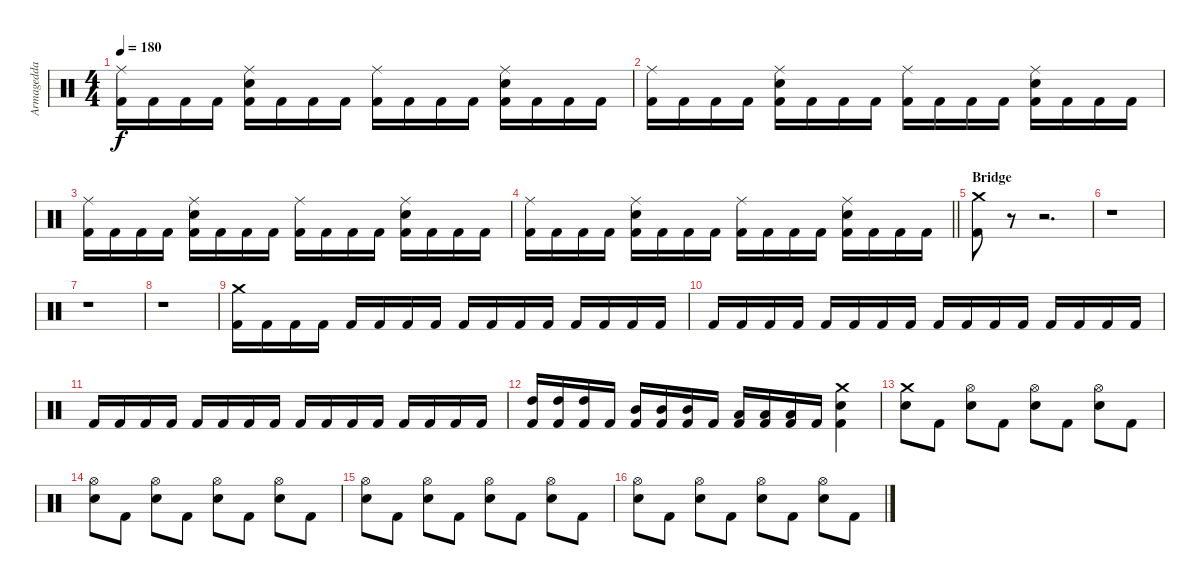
\track ("Armagedda" "Armagedda") {instrument percussion}
\staff {score}
\articulation defaults
\ts (4 4)
\tempo 180
\clef neutral
\ks c
("Ride (middle)" "Kick (hit) 2").16{dy f} "Kick (hit) 2".16 "Kick (hit) 2".16 "Kick (hit) 2".16 ("Ride (middle)" "Electric Snare (hit)" "Kick (hit) 2").16 "Kick (hit) 2".16 "Kick (hit) 2".16 "Kick (hit) 2".16 ("Ride (middle)" "Kick (hit) 2").16 "Kick (hit) 2".16 "Kick (hit) 2".16 "Kick (hit) 2".16 ("Ride (middle)" "Electric Snare (hit)" "Kick (hit) 2").16 "Kick (hit) 2".16 "Kick (hit) 2".16 "Kick (hit) 2".16 |
("Ride (middle)" "Kick (hit) 2").16 "Kick (hit) 2".16 "Kick (hit) 2".16 "Kick (hit) 2".16 ("Ride (middle)" "Electric Snare (hit)" "Kick (hit) 2").16 "Kick (hit) 2".16 "Kick (hit) 2".16 "Kick (hit) 2".16 ("Ride (middle)" "Kick (hit) 2").16 "Kick (hit) 2".16 "Kick (hit) 2".16 "Kick (hit) 2".16 ("Ride (middle)" "Electric Snare (hit)" "Kick (hit) 2").16 "Kick (hit) 2".16 "Kick (hit) 2".16 "Kick (hit) 2".16 |
("Ride (middle)" "Kick (hit) 2").16 "Kick (hit) 2".16 "Kick (hit) 2".16 "Kick (hit) 2".16 ("Ride (middle)" "Electric Snare (hit)" "Kick (hit) 2").16 "Kick (hit) 2".16 "Kick (hit) 2".16 "Kick (hit) 2".16 ("Ride (middle)" "Kick (hit) 2").16 "Kick (hit) 2".16 "Kick (hit) 2".16 "Kick (hit) 2".16 ("Ride (middle)" "Electric Snare (hit)" "Kick (hit) 2").16 "Kick (hit) 2".16 "Kick (hit) 2".16 "Kick (hit) 2".16 |
\barLineRight lightlight
("Ride (middle)" "Kick (hit) 2").16 "Kick (hit) 2".16 "Kick (hit) 2".16 "Kick (hit) 2".16 ("Ride (middle)" "Electric Snare (hit)" "Kick (hit) 2").16 "Kick (hit) 2".16 "Kick (hit) 2".16 "Kick (hit) 2".16 ("Ride (middle)" "Kick (hit) 2").16 "Kick (hit) 2".16 "Kick (hit) 2".16 "Kick (hit) 2".16 ("Ride (middle)" "Electric Snare (hit)" "Kick (hit) 2").16 "Kick (hit) 2".16 "Kick (hit) 2".16 "Kick (hit) 2".16 |
\section ("" "Bridge")
("Crash medium (hit)" "Kick (hit) 2").8 r.8 r.2{d} |
r.1 |
r.1 |
r.1 |
("Crash medium (hit)" "Kick (hit) 2").16 "Kick (hit) 2".16 "Kick (hit) 2".16 "Kick (hit) 2".16 "Kick (hit) 2".16 "Kick (hit) 2".16 "Kick (hit) 2".16 "Kick (hit) 2".16 "Kick (hit) 2".16 "Kick (hit) 2".16 "Kick (hit) 2".16 "Kick (hit) 2".16 "Kick (hit) 2".16 "Kick (hit) 2".16 "Kick (hit) 2".16 "Kick (hit) 2".16 |
"Kick (hit) 2".16 "Kick (hit) 2".16 "Kick (hit) 2".16 "Kick (hit) 2".16 "Kick (hit) 2".16 "Kick (hit) 2".16 "Kick (hit) 2".16 "Kick (hit) 2".16 "Kick (hit) 2".16 "Kick (hit) 2".16 "Kick (hit) 2".16 "Kick (hit) 2".16 "Kick (hit) 2".16 "Kick (hit) 2".16 "Kick (hit) 2".16 "Kick (hit) 2".16 |
"Kick (hit) 2".16 "Kick (hit) 2".16 "Kick (hit) 2".16 "Kick (hit) 2".16 "Kick (hit) 2".16 "Kick (hit) 2".16 "Kick (hit) 2".16 "Kick (hit) 2".16 "Kick (hit) 2".16 "Kick (hit) 2".16 "Kick (hit) 2".16 "Kick (hit) 2".16 "Kick (hit) 2".16 "Kick (hit) 2".16 "Kick (hit) 2".16 "Kick (hit) 2".16 |
("High Tom (hit)" "Kick (hit) 2").16 ("High Tom (hit)" "Kick (hit) 2").16 ("High Tom (hit)" "Kick (hit) 2").16 "Kick (hit) 2".16 ("Mid Tom (hit)" "Kick (hit) 2").16 ("Mid Tom (hit)" "Kick (hit) 2").16 ("Mid Tom (hit)" "Kick (hit) 2").16 "Kick (hit) 2".16 ("Low Tom (hit)" "Kick (hit) 2").16 ("Low Tom (hit)" "Kick (hit) 2").16 ("Low Tom (hit)" "Kick (hit) 2").16 "Kick (hit) 2".16 ("Crash medium (hit)" "Electric Snare (hit)" "Kick (hit) 2").4 |
("Crash medium (hit)" "Electric Snare (hit)").8 "Kick (hit) 2".8 ("Hi-Hat (open)" "Electric Snare (hit)").8 "Kick (hit) 2".8 ("Hi-Hat (open)" "Electric Snare (hit)").8 "Kick (hit) 2".8 ("Hi-Hat (open)" "Electric Snare (hit)").8 "Kick (hit) 2".8 |
("Hi-Hat (open)" "Electric Snare (hit)").8 "Kick (hit) 2".8 ("Hi-Hat (open)" "Electric Snare (hit)").8 "Kick (hit) 2".8 ("Hi-Hat (open)" "Electric Snare (hit)").8 "Kick (hit) 2".8 ("Hi-Hat (open)" "Electric Snare (hit)").8 "Kick (hit) 2".8 |
("Hi-Hat (open)" "Electric Snare (hit)").8 "Kick (hit) 2".8 ("Hi-Hat (open)" "Electric Snare (hit)").8 "Kick (hit) 2".8 ("Hi-Hat (open)" "Electric Snare (hit)").8 "Kick (hit) 2".8 ("Hi-Hat (open)" "Electric Snare (hit)").8 "Kick (hit) 2".8 |
("Hi-Hat (open)" "Electric Snare (hit)").8 "Kick (hit) 2".8 ("Hi-Hat (open)" "Electric Snare (hit)").8 "Kick (hit) 2".8 ("Hi-Hat (open)" "Electric Snare (hit)").8 "Kick (hit) 2".8 ("Hi-Hat (open)" "Electric Snare (hit)").8 "Kick (hit) 2".8
